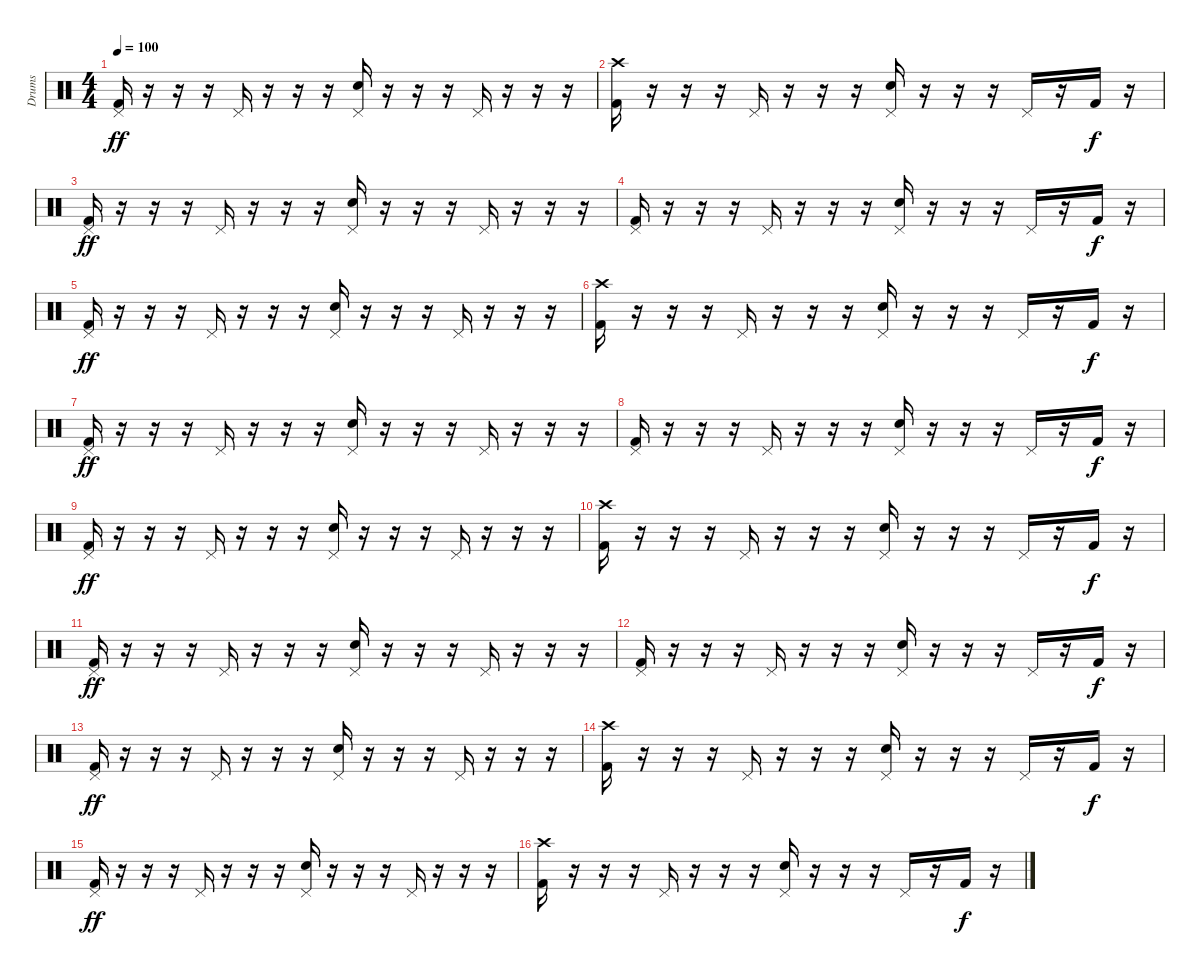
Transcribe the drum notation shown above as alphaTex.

\track ("Drums" "Drums") {instrument percussion}
\staff {score}
\articulation defaults
\ts (4 4)
\tempo 100
\clef neutral
\ks c
("Kick (hit) 2" "Pedal Hi-Hat (hit)").16{dy ff} r.16 r.16 r.16 "Pedal Hi-Hat (hit)".16 r.16 r.16 r.16 ("Electric Snare (hit)" "Pedal Hi-Hat (hit)").16 r.16 r.16 r.16 "Pedal Hi-Hat (hit)".16 r.16 r.16 r.16 |
("Kick (hit) 2" "Crash high (hit)").16 r.16 r.16 r.16 "Pedal Hi-Hat (hit)".16 r.16 r.16 r.16 ("Electric Snare (hit)" "Pedal Hi-Hat (hit)").16 r.16 r.16 r.16 "Pedal Hi-Hat (hit)".16 r.16 "Kick (hit) 2".16{dy f} r.16 |
("Kick (hit) 2" "Pedal Hi-Hat (hit)").16{dy ff} r.16 r.16 r.16 "Pedal Hi-Hat (hit)".16 r.16 r.16 r.16 ("Electric Snare (hit)" "Pedal Hi-Hat (hit)").16 r.16 r.16 r.16 "Pedal Hi-Hat (hit)".16 r.16 r.16 r.16 |
("Kick (hit) 2" "Pedal Hi-Hat (hit)").16 r.16 r.16 r.16 "Pedal Hi-Hat (hit)".16 r.16 r.16 r.16 ("Electric Snare (hit)" "Pedal Hi-Hat (hit)").16 r.16 r.16 r.16 "Pedal Hi-Hat (hit)".16 r.16 "Kick (hit) 2".16{dy f} r.16 |
("Kick (hit) 2" "Pedal Hi-Hat (hit)").16{dy ff} r.16 r.16 r.16 "Pedal Hi-Hat (hit)".16 r.16 r.16 r.16 ("Electric Snare (hit)" "Pedal Hi-Hat (hit)").16 r.16 r.16 r.16 "Pedal Hi-Hat (hit)".16 r.16 r.16 r.16 |
("Kick (hit) 2" "Crash high (hit)").16 r.16 r.16 r.16 "Pedal Hi-Hat (hit)".16 r.16 r.16 r.16 ("Electric Snare (hit)" "Pedal Hi-Hat (hit)").16 r.16 r.16 r.16 "Pedal Hi-Hat (hit)".16 r.16 "Kick (hit) 2".16{dy f} r.16 |
("Kick (hit) 2" "Pedal Hi-Hat (hit)").16{dy ff} r.16 r.16 r.16 "Pedal Hi-Hat (hit)".16 r.16 r.16 r.16 ("Electric Snare (hit)" "Pedal Hi-Hat (hit)").16 r.16 r.16 r.16 "Pedal Hi-Hat (hit)".16 r.16 r.16 r.16 |
("Kick (hit) 2" "Pedal Hi-Hat (hit)").16 r.16 r.16 r.16 "Pedal Hi-Hat (hit)".16 r.16 r.16 r.16 ("Electric Snare (hit)" "Pedal Hi-Hat (hit)").16 r.16 r.16 r.16 "Pedal Hi-Hat (hit)".16 r.16 "Kick (hit) 2".16{dy f} r.16 |
("Kick (hit) 2" "Pedal Hi-Hat (hit)").16{dy ff} r.16 r.16 r.16 "Pedal Hi-Hat (hit)".16 r.16 r.16 r.16 ("Electric Snare (hit)" "Pedal Hi-Hat (hit)").16 r.16 r.16 r.16 "Pedal Hi-Hat (hit)".16 r.16 r.16 r.16 |
("Kick (hit) 2" "Crash high (hit)").16 r.16 r.16 r.16 "Pedal Hi-Hat (hit)".16 r.16 r.16 r.16 ("Electric Snare (hit)" "Pedal Hi-Hat (hit)").16 r.16 r.16 r.16 "Pedal Hi-Hat (hit)".16 r.16 "Kick (hit) 2".16{dy f} r.16 |
("Kick (hit) 2" "Pedal Hi-Hat (hit)").16{dy ff} r.16 r.16 r.16 "Pedal Hi-Hat (hit)".16 r.16 r.16 r.16 ("Electric Snare (hit)" "Pedal Hi-Hat (hit)").16 r.16 r.16 r.16 "Pedal Hi-Hat (hit)".16 r.16 r.16 r.16 |
("Kick (hit) 2" "Pedal Hi-Hat (hit)").16 r.16 r.16 r.16 "Pedal Hi-Hat (hit)".16 r.16 r.16 r.16 ("Electric Snare (hit)" "Pedal Hi-Hat (hit)").16 r.16 r.16 r.16 "Pedal Hi-Hat (hit)".16 r.16 "Kick (hit) 2".16{dy f} r.16 |
("Kick (hit) 2" "Pedal Hi-Hat (hit)").16{dy ff} r.16 r.16 r.16 "Pedal Hi-Hat (hit)".16 r.16 r.16 r.16 ("Electric Snare (hit)" "Pedal Hi-Hat (hit)").16 r.16 r.16 r.16 "Pedal Hi-Hat (hit)".16 r.16 r.16 r.16 |
("Kick (hit) 2" "Crash high (hit)").16 r.16 r.16 r.16 "Pedal Hi-Hat (hit)".16 r.16 r.16 r.16 ("Electric Snare (hit)" "Pedal Hi-Hat (hit)").16 r.16 r.16 r.16 "Pedal Hi-Hat (hit)".16 r.16 "Kick (hit) 2".16{dy f} r.16 |
("Kick (hit) 2" "Pedal Hi-Hat (hit)").16{dy ff} r.16 r.16 r.16 "Pedal Hi-Hat (hit)".16 r.16 r.16 r.16 ("Electric Snare (hit)" "Pedal Hi-Hat (hit)").16 r.16 r.16 r.16 "Pedal Hi-Hat (hit)".16 r.16 r.16 r.16 |
("Kick (hit) 2" "Crash high (hit)").16 r.16 r.16 r.16 "Pedal Hi-Hat (hit)".16 r.16 r.16 r.16 ("Electric Snare (hit)" "Pedal Hi-Hat (hit)").16 r.16 r.16 r.16 "Pedal Hi-Hat (hit)".16 r.16 "Kick (hit) 2".16{dy f} r.16
